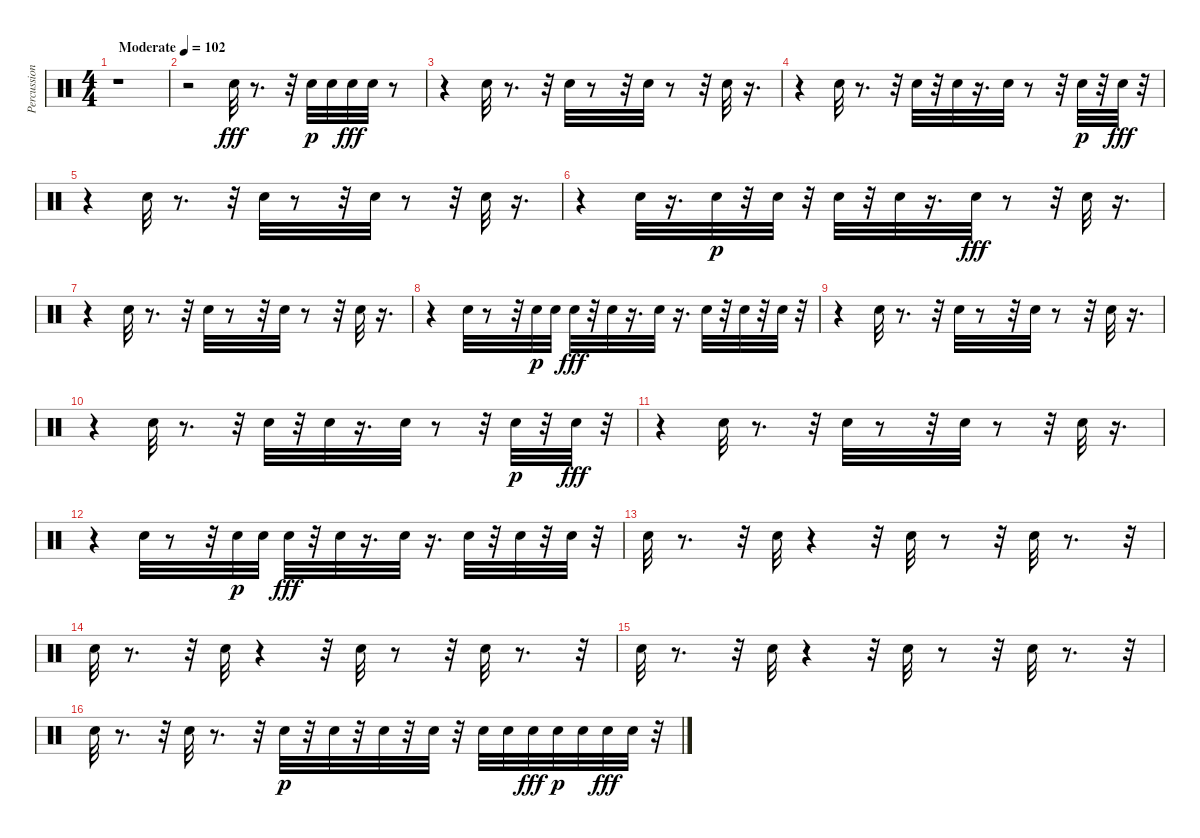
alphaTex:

\track ("Percussion" "Percussion") {instrument percussion}
\staff {score}
\articulation defaults
\ts (4 4)
\tempo (102 "Moderate")
\clef neutral
\ks c
r.1{dy fff} |
r.2 "Snare (hit) 2".32 r.8{d} r.32 "Snare (hit) 2".32{dy p} "Snare (hit) 2".32 "Snare (hit) 2".32{dy fff} "Snare (hit) 2".32 r.8 |
r.4 "Snare (hit) 2".32 r.8{d} r.32 "Snare (hit) 2".32 r.8 r.32 "Snare (hit) 2".32 r.8 r.32 "Snare (hit) 2".32 r.16{d} |
r.4 "Snare (hit) 2".32 r.8{d} r.32 "Snare (hit) 2".32 r.32 "Snare (hit) 2".32 r.16{d} "Snare (hit) 2".32 r.8 r.32 "Snare (hit) 2".32{dy p} r.32 "Snare (hit) 2".32{dy fff} r.32 |
r.4 "Snare (hit) 2".32 r.8{d} r.32 "Snare (hit) 2".32 r.8 r.32 "Snare (hit) 2".32 r.8 r.32 "Snare (hit) 2".32 r.16{d} |
r.4 "Snare (hit) 2".32 r.16{d} "Snare (hit) 2".32{dy p} r.32 "Snare (hit) 2".32 r.32 "Snare (hit) 2".32 r.32 "Snare (hit) 2".32 r.16{d} "Snare (hit) 2".32{dy fff} r.8 r.32 "Snare (hit) 2".32 r.16{d} |
r.4 "Snare (hit) 2".32 r.8{d} r.32 "Snare (hit) 2".32 r.8 r.32 "Snare (hit) 2".32 r.8 r.32 "Snare (hit) 2".32 r.16{d} |
r.4 "Snare (hit) 2".32 r.8 r.32 "Snare (hit) 2".32{dy p} "Snare (hit) 2".32 "Snare (hit) 2".32{dy fff} r.32 "Snare (hit) 2".32 r.16{d} "Snare (hit) 2".32 r.16{d} "Snare (hit) 2".32 r.32 "Snare (hit) 2".32 r.32 "Snare (hit) 2".32 r.32 |
r.4 "Snare (hit) 2".32 r.8{d} r.32 "Snare (hit) 2".32 r.8 r.32 "Snare (hit) 2".32 r.8 r.32 "Snare (hit) 2".32 r.16{d} |
r.4 "Snare (hit) 2".32 r.8{d} r.32 "Snare (hit) 2".32 r.32 "Snare (hit) 2".32 r.16{d} "Snare (hit) 2".32 r.8 r.32 "Snare (hit) 2".32{dy p} r.32 "Snare (hit) 2".32{dy fff} r.32 |
r.4 "Snare (hit) 2".32 r.8{d} r.32 "Snare (hit) 2".32 r.8 r.32 "Snare (hit) 2".32 r.8 r.32 "Snare (hit) 2".32 r.16{d} |
r.4 "Snare (hit) 2".32 r.8 r.32 "Snare (hit) 2".32{dy p} "Snare (hit) 2".32 "Snare (hit) 2".32{dy fff} r.32 "Snare (hit) 2".32 r.16{d} "Snare (hit) 2".32 r.16{d} "Snare (hit) 2".32 r.32 "Snare (hit) 2".32 r.32 "Snare (hit) 2".32 r.32 |
"Snare (hit) 2".32 r.8{d} r.32 "Snare (hit) 2".32 r.4 r.32 "Snare (hit) 2".32 r.8 r.32 "Snare (hit) 2".32 r.8{d} r.32 |
"Snare (hit) 2".32 r.8{d} r.32 "Snare (hit) 2".32 r.4 r.32 "Snare (hit) 2".32 r.8 r.32 "Snare (hit) 2".32 r.8{d} r.32 |
"Snare (hit) 2".32 r.8{d} r.32 "Snare (hit) 2".32 r.4 r.32 "Snare (hit) 2".32 r.8 r.32 "Snare (hit) 2".32 r.8{d} r.32 |
"Snare (hit) 2".32 r.8{d} r.32 "Snare (hit) 2".32 r.8{d} r.32 "Snare (hit) 2".32{dy p} r.32 "Snare (hit) 2".32 r.32 "Snare (hit) 2".32 r.32 "Snare (hit) 2".32 r.32 "Snare (hit) 2".32 "Snare (hit) 2".32 "Snare (hit) 2".32{dy fff} "Snare (hit) 2".32{dy p} "Snare (hit) 2".32 "Snare (hit) 2".32{dy fff} "Snare (hit) 2".32 r.32
